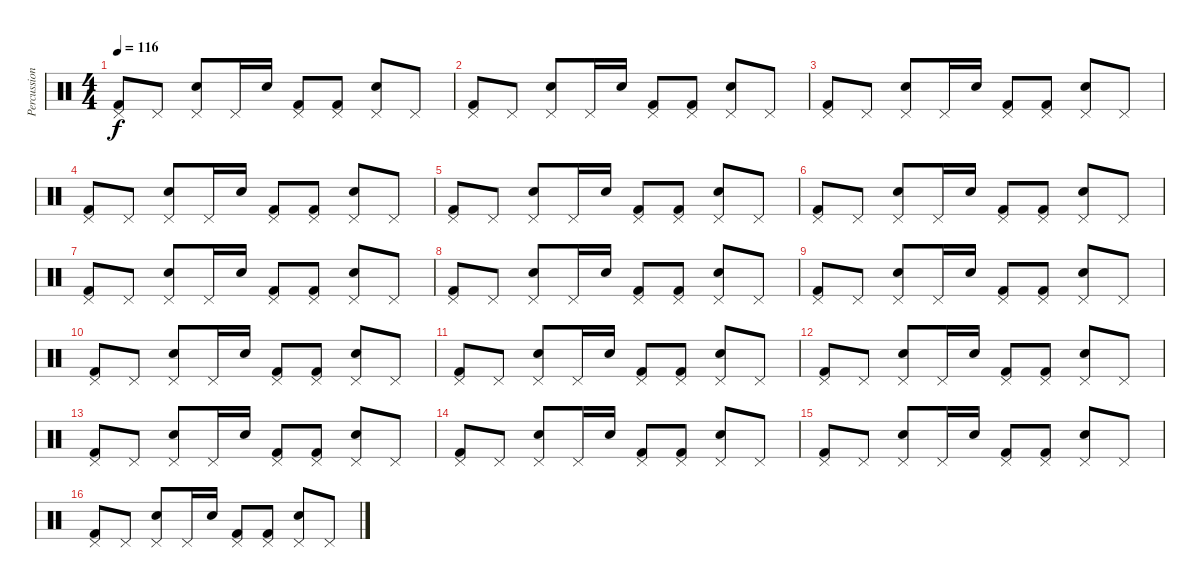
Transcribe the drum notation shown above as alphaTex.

\track ("Percussions" "Percussion") {instrument percussion}
\staff {score}
\articulation defaults
\ts (4 4)
\tempo 116
\clef neutral
\ks c
("Pedal Hi-Hat (hit)" "Kick (hit) 2").8{dy f} "Pedal Hi-Hat (hit)".8 ("Pedal Hi-Hat (hit)" "Electric Snare (hit)").8 "Pedal Hi-Hat (hit)".16 "Electric Snare (hit)".16 ("Pedal Hi-Hat (hit)" "Kick (hit) 2").8 ("Pedal Hi-Hat (hit)" "Kick (hit) 2").8 ("Pedal Hi-Hat (hit)" "Electric Snare (hit)").8 "Pedal Hi-Hat (hit)".8 |
("Pedal Hi-Hat (hit)" "Kick (hit) 2").8 "Pedal Hi-Hat (hit)".8 ("Pedal Hi-Hat (hit)" "Electric Snare (hit)").8 "Pedal Hi-Hat (hit)".16 "Electric Snare (hit)".16 ("Pedal Hi-Hat (hit)" "Kick (hit) 2").8 ("Pedal Hi-Hat (hit)" "Kick (hit) 2").8 ("Pedal Hi-Hat (hit)" "Electric Snare (hit)").8 "Pedal Hi-Hat (hit)".8 |
("Pedal Hi-Hat (hit)" "Kick (hit) 2").8 "Pedal Hi-Hat (hit)".8 ("Pedal Hi-Hat (hit)" "Electric Snare (hit)").8 "Pedal Hi-Hat (hit)".16 "Electric Snare (hit)".16 ("Pedal Hi-Hat (hit)" "Kick (hit) 2").8 ("Pedal Hi-Hat (hit)" "Kick (hit) 2").8 ("Pedal Hi-Hat (hit)" "Electric Snare (hit)").8 "Pedal Hi-Hat (hit)".8 |
("Pedal Hi-Hat (hit)" "Kick (hit) 2").8 "Pedal Hi-Hat (hit)".8 ("Pedal Hi-Hat (hit)" "Electric Snare (hit)").8 "Pedal Hi-Hat (hit)".16 "Electric Snare (hit)".16 ("Pedal Hi-Hat (hit)" "Kick (hit) 2").8 ("Pedal Hi-Hat (hit)" "Kick (hit) 2").8 ("Pedal Hi-Hat (hit)" "Electric Snare (hit)").8 "Pedal Hi-Hat (hit)".8 |
("Pedal Hi-Hat (hit)" "Kick (hit) 2").8 "Pedal Hi-Hat (hit)".8 ("Pedal Hi-Hat (hit)" "Electric Snare (hit)").8 "Pedal Hi-Hat (hit)".16 "Electric Snare (hit)".16 ("Pedal Hi-Hat (hit)" "Kick (hit) 2").8 ("Pedal Hi-Hat (hit)" "Kick (hit) 2").8 ("Pedal Hi-Hat (hit)" "Electric Snare (hit)").8 "Pedal Hi-Hat (hit)".8 |
("Pedal Hi-Hat (hit)" "Kick (hit) 2").8 "Pedal Hi-Hat (hit)".8 ("Pedal Hi-Hat (hit)" "Electric Snare (hit)").8 "Pedal Hi-Hat (hit)".16 "Electric Snare (hit)".16 ("Pedal Hi-Hat (hit)" "Kick (hit) 2").8 ("Pedal Hi-Hat (hit)" "Kick (hit) 2").8 ("Pedal Hi-Hat (hit)" "Electric Snare (hit)").8 "Pedal Hi-Hat (hit)".8 |
("Pedal Hi-Hat (hit)" "Kick (hit) 2").8 "Pedal Hi-Hat (hit)".8 ("Pedal Hi-Hat (hit)" "Electric Snare (hit)").8 "Pedal Hi-Hat (hit)".16 "Electric Snare (hit)".16 ("Pedal Hi-Hat (hit)" "Kick (hit) 2").8 ("Pedal Hi-Hat (hit)" "Kick (hit) 2").8 ("Pedal Hi-Hat (hit)" "Electric Snare (hit)").8 "Pedal Hi-Hat (hit)".8 |
("Pedal Hi-Hat (hit)" "Kick (hit) 2").8 "Pedal Hi-Hat (hit)".8 ("Pedal Hi-Hat (hit)" "Electric Snare (hit)").8 "Pedal Hi-Hat (hit)".16 "Electric Snare (hit)".16 ("Pedal Hi-Hat (hit)" "Kick (hit) 2").8 ("Pedal Hi-Hat (hit)" "Kick (hit) 2").8 ("Pedal Hi-Hat (hit)" "Electric Snare (hit)").8 "Pedal Hi-Hat (hit)".8 |
("Pedal Hi-Hat (hit)" "Kick (hit) 2").8 "Pedal Hi-Hat (hit)".8 ("Pedal Hi-Hat (hit)" "Electric Snare (hit)").8 "Pedal Hi-Hat (hit)".16 "Electric Snare (hit)".16 ("Pedal Hi-Hat (hit)" "Kick (hit) 2").8 ("Pedal Hi-Hat (hit)" "Kick (hit) 2").8 ("Pedal Hi-Hat (hit)" "Electric Snare (hit)").8 "Pedal Hi-Hat (hit)".8 |
("Pedal Hi-Hat (hit)" "Kick (hit) 2").8 "Pedal Hi-Hat (hit)".8 ("Pedal Hi-Hat (hit)" "Electric Snare (hit)").8 "Pedal Hi-Hat (hit)".16 "Electric Snare (hit)".16 ("Pedal Hi-Hat (hit)" "Kick (hit) 2").8 ("Pedal Hi-Hat (hit)" "Kick (hit) 2").8 ("Pedal Hi-Hat (hit)" "Electric Snare (hit)").8 "Pedal Hi-Hat (hit)".8 |
("Pedal Hi-Hat (hit)" "Kick (hit) 2").8 "Pedal Hi-Hat (hit)".8 ("Pedal Hi-Hat (hit)" "Electric Snare (hit)").8 "Pedal Hi-Hat (hit)".16 "Electric Snare (hit)".16 ("Pedal Hi-Hat (hit)" "Kick (hit) 2").8 ("Pedal Hi-Hat (hit)" "Kick (hit) 2").8 ("Pedal Hi-Hat (hit)" "Electric Snare (hit)").8 "Pedal Hi-Hat (hit)".8 |
("Pedal Hi-Hat (hit)" "Kick (hit) 2").8 "Pedal Hi-Hat (hit)".8 ("Pedal Hi-Hat (hit)" "Electric Snare (hit)").8 "Pedal Hi-Hat (hit)".16 "Electric Snare (hit)".16 ("Pedal Hi-Hat (hit)" "Kick (hit) 2").8 ("Pedal Hi-Hat (hit)" "Kick (hit) 2").8 ("Pedal Hi-Hat (hit)" "Electric Snare (hit)").8 "Pedal Hi-Hat (hit)".8 |
("Pedal Hi-Hat (hit)" "Kick (hit) 2").8 "Pedal Hi-Hat (hit)".8 ("Pedal Hi-Hat (hit)" "Electric Snare (hit)").8 "Pedal Hi-Hat (hit)".16 "Electric Snare (hit)".16 ("Pedal Hi-Hat (hit)" "Kick (hit) 2").8 ("Pedal Hi-Hat (hit)" "Kick (hit) 2").8 ("Pedal Hi-Hat (hit)" "Electric Snare (hit)").8 "Pedal Hi-Hat (hit)".8 |
("Pedal Hi-Hat (hit)" "Kick (hit) 2").8 "Pedal Hi-Hat (hit)".8 ("Pedal Hi-Hat (hit)" "Electric Snare (hit)").8 "Pedal Hi-Hat (hit)".16 "Electric Snare (hit)".16 ("Pedal Hi-Hat (hit)" "Kick (hit) 2").8 ("Pedal Hi-Hat (hit)" "Kick (hit) 2").8 ("Pedal Hi-Hat (hit)" "Electric Snare (hit)").8 "Pedal Hi-Hat (hit)".8 |
("Pedal Hi-Hat (hit)" "Kick (hit) 2").8 "Pedal Hi-Hat (hit)".8 ("Pedal Hi-Hat (hit)" "Electric Snare (hit)").8 "Pedal Hi-Hat (hit)".16 "Electric Snare (hit)".16 ("Pedal Hi-Hat (hit)" "Kick (hit) 2").8 ("Pedal Hi-Hat (hit)" "Kick (hit) 2").8 ("Pedal Hi-Hat (hit)" "Electric Snare (hit)").8 "Pedal Hi-Hat (hit)".8 |
("Pedal Hi-Hat (hit)" "Kick (hit) 2").8 "Pedal Hi-Hat (hit)".8 ("Pedal Hi-Hat (hit)" "Electric Snare (hit)").8 "Pedal Hi-Hat (hit)".16 "Electric Snare (hit)".16 ("Pedal Hi-Hat (hit)" "Kick (hit) 2").8 ("Pedal Hi-Hat (hit)" "Kick (hit) 2").8 ("Pedal Hi-Hat (hit)" "Electric Snare (hit)").8 "Pedal Hi-Hat (hit)".8
